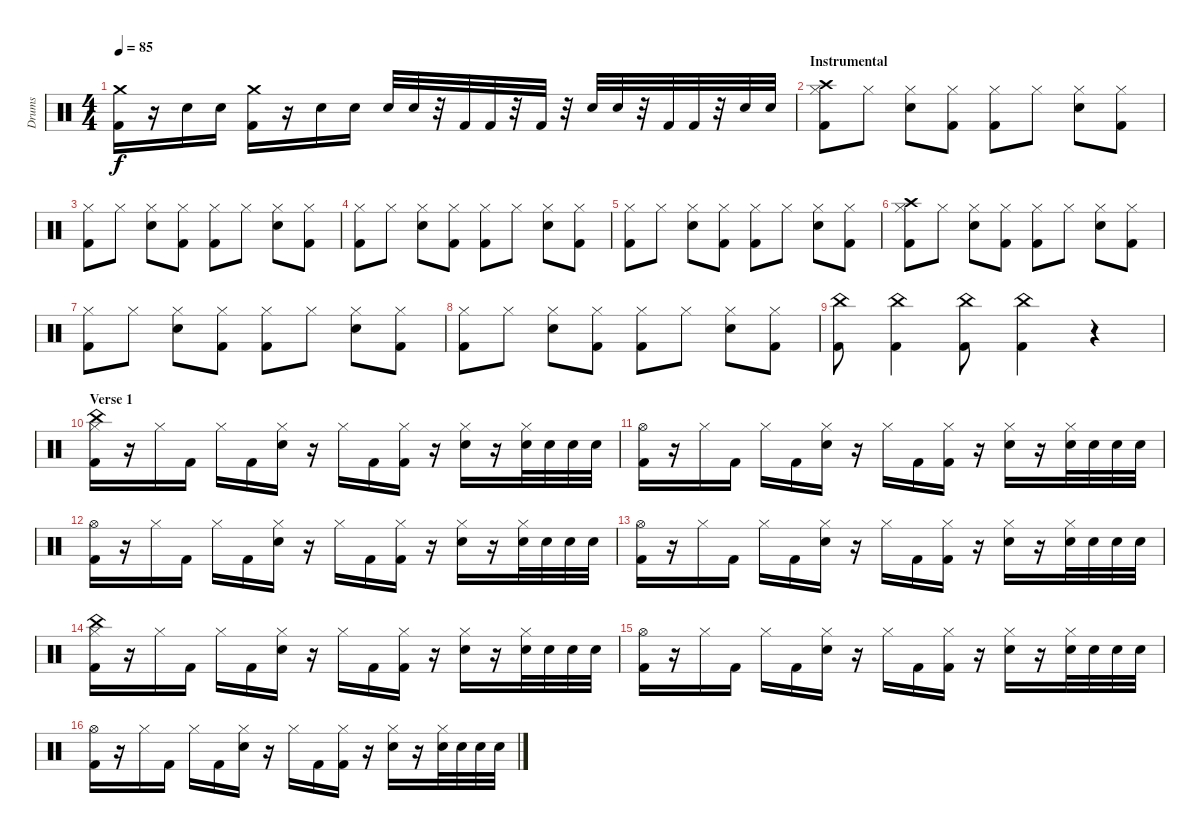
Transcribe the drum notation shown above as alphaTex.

\track ("Drums" "Drums") {instrument percussion}
\staff {score}
\articulation defaults
\ts (4 4)
\tempo 85
\clef neutral
\ks c
("Kick (hit) 2" "Crash medium (hit)").16{dy f} r.16 "Snare (hit) 2".16 "Snare (hit) 2".16 ("Kick (hit) 2" "Crash medium (hit)").16 r.16 "Snare (hit) 2".16 "Snare (hit) 2".16 "Snare (hit) 2".32 "Snare (hit) 2".32 r.32 "Kick (hit) 2".32 "Kick (hit) 2".32 r.32 "Kick (hit) 2".32 r.32 "Snare (hit) 2".32 "Snare (hit) 2".32 r.32 "Kick (hit) 2".32 "Kick (hit) 2".32 r.32 "Snare (hit) 2".32 "Snare (hit) 2".32 |
\section ("" "Instrumental")
("Hi-Hat (closed)" "Kick (hit) 2" "Crash high (hit)").8 "Hi-Hat (closed)".8 ("Hi-Hat (closed)" "Snare (hit) 2").8 ("Hi-Hat (closed)" "Kick (hit) 2").8 ("Hi-Hat (closed)" "Kick (hit) 2").8 "Hi-Hat (closed)".8 ("Hi-Hat (closed)" "Snare (hit) 2").8 ("Hi-Hat (closed)" "Kick (hit) 2").8 |
("Hi-Hat (closed)" "Kick (hit) 2").8 "Hi-Hat (closed)".8 ("Hi-Hat (closed)" "Snare (hit) 2").8 ("Hi-Hat (closed)" "Kick (hit) 2").8 ("Hi-Hat (closed)" "Kick (hit) 2").8 "Hi-Hat (closed)".8 ("Hi-Hat (closed)" "Snare (hit) 2").8 ("Hi-Hat (closed)" "Kick (hit) 2").8 |
("Hi-Hat (closed)" "Kick (hit) 2").8 "Hi-Hat (closed)".8 ("Hi-Hat (closed)" "Snare (hit) 2").8 ("Hi-Hat (closed)" "Kick (hit) 2").8 ("Hi-Hat (closed)" "Kick (hit) 2").8 "Hi-Hat (closed)".8 ("Hi-Hat (closed)" "Snare (hit) 2").8 ("Hi-Hat (closed)" "Kick (hit) 2").8 |
("Hi-Hat (closed)" "Kick (hit) 2").8 "Hi-Hat (closed)".8 ("Hi-Hat (closed)" "Snare (hit) 2").8 ("Hi-Hat (closed)" "Kick (hit) 2").8 ("Hi-Hat (closed)" "Kick (hit) 2").8 "Hi-Hat (closed)".8 ("Hi-Hat (closed)" "Snare (hit) 2").8 ("Hi-Hat (closed)" "Kick (hit) 2").8 |
("Hi-Hat (closed)" "Kick (hit) 2" "Crash high (hit)").8 "Hi-Hat (closed)".8 ("Hi-Hat (closed)" "Snare (hit) 2").8 ("Hi-Hat (closed)" "Kick (hit) 2").8 ("Hi-Hat (closed)" "Kick (hit) 2").8 "Hi-Hat (closed)".8 ("Hi-Hat (closed)" "Snare (hit) 2").8 ("Hi-Hat (closed)" "Kick (hit) 2").8 |
("Hi-Hat (closed)" "Kick (hit) 2").8 "Hi-Hat (closed)".8 ("Hi-Hat (closed)" "Snare (hit) 2").8 ("Hi-Hat (closed)" "Kick (hit) 2").8 ("Hi-Hat (closed)" "Kick (hit) 2").8 "Hi-Hat (closed)".8 ("Hi-Hat (closed)" "Snare (hit) 2").8 ("Hi-Hat (closed)" "Kick (hit) 2").8 |
("Hi-Hat (closed)" "Kick (hit) 2").8 "Hi-Hat (closed)".8 ("Hi-Hat (closed)" "Snare (hit) 2").8 ("Hi-Hat (closed)" "Kick (hit) 2").8 ("Hi-Hat (closed)" "Kick (hit) 2").8 "Hi-Hat (closed)".8 ("Hi-Hat (closed)" "Snare (hit) 2").8 ("Hi-Hat (closed)" "Kick (hit) 2").8 |
("Kick (hit) 2" "China (hit)").8 ("Kick (hit) 2" "China (hit)").4 ("Kick (hit) 2" "China (hit)").8 ("Kick (hit) 2" "China (hit)").4 r.4 |
\section ("" "Verse 1")
("Hi-Hat (closed)" "Kick (hit) 2" "China (hit)").16 r.16 "Hi-Hat (closed)".16 "Kick (hit) 2".16 "Hi-Hat (closed)".16 "Kick (hit) 2".16 ("Hi-Hat (closed)" "Snare (hit) 2").16 r.16 "Hi-Hat (closed)".16 "Kick (hit) 2".16 ("Hi-Hat (closed)" "Kick (hit) 2").16 r.16 ("Hi-Hat (closed)" "Snare (hit) 2").16 r.16 ("Hi-Hat (closed)" "Snare (hit) 2").32 "Snare (hit) 2".32 "Snare (hit) 2".32 "Snare (hit) 2".32 |
("Hi-Hat (open)" "Kick (hit) 2").16 r.16 "Hi-Hat (closed)".16 "Kick (hit) 2".16 "Hi-Hat (closed)".16 "Kick (hit) 2".16 ("Hi-Hat (closed)" "Snare (hit) 2").16 r.16 "Hi-Hat (closed)".16 "Kick (hit) 2".16 ("Hi-Hat (closed)" "Kick (hit) 2").16 r.16 ("Hi-Hat (closed)" "Snare (hit) 2").16 r.16 ("Hi-Hat (closed)" "Snare (hit) 2").32 "Snare (hit) 2".32 "Snare (hit) 2".32 "Snare (hit) 2".32 |
("Hi-Hat (open)" "Kick (hit) 2").16 r.16 "Hi-Hat (closed)".16 "Kick (hit) 2".16 "Hi-Hat (closed)".16 "Kick (hit) 2".16 ("Hi-Hat (closed)" "Snare (hit) 2").16 r.16 "Hi-Hat (closed)".16 "Kick (hit) 2".16 ("Hi-Hat (closed)" "Kick (hit) 2").16 r.16 ("Hi-Hat (closed)" "Snare (hit) 2").16 r.16 ("Hi-Hat (closed)" "Snare (hit) 2").32 "Snare (hit) 2".32 "Snare (hit) 2".32 "Snare (hit) 2".32 |
("Hi-Hat (open)" "Kick (hit) 2").16 r.16 "Hi-Hat (closed)".16 "Kick (hit) 2".16 "Hi-Hat (closed)".16 "Kick (hit) 2".16 ("Hi-Hat (closed)" "Snare (hit) 2").16 r.16 "Hi-Hat (closed)".16 "Kick (hit) 2".16 ("Hi-Hat (closed)" "Kick (hit) 2").16 r.16 ("Hi-Hat (closed)" "Snare (hit) 2").16 r.16 ("Hi-Hat (closed)" "Snare (hit) 2").32 "Snare (hit) 2".32 "Snare (hit) 2".32 "Snare (hit) 2".32 |
("Hi-Hat (closed)" "Kick (hit) 2" "China (hit)").16 r.16 "Hi-Hat (closed)".16 "Kick (hit) 2".16 "Hi-Hat (closed)".16 "Kick (hit) 2".16 ("Hi-Hat (closed)" "Snare (hit) 2").16 r.16 "Hi-Hat (closed)".16 "Kick (hit) 2".16 ("Hi-Hat (closed)" "Kick (hit) 2").16 r.16 ("Hi-Hat (closed)" "Snare (hit) 2").16 r.16 ("Hi-Hat (closed)" "Snare (hit) 2").32 "Snare (hit) 2".32 "Snare (hit) 2".32 "Snare (hit) 2".32 |
("Hi-Hat (open)" "Kick (hit) 2").16 r.16 "Hi-Hat (closed)".16 "Kick (hit) 2".16 "Hi-Hat (closed)".16 "Kick (hit) 2".16 ("Hi-Hat (closed)" "Snare (hit) 2").16 r.16 "Hi-Hat (closed)".16 "Kick (hit) 2".16 ("Hi-Hat (closed)" "Kick (hit) 2").16 r.16 ("Hi-Hat (closed)" "Snare (hit) 2").16 r.16 ("Hi-Hat (closed)" "Snare (hit) 2").32 "Snare (hit) 2".32 "Snare (hit) 2".32 "Snare (hit) 2".32 |
("Hi-Hat (open)" "Kick (hit) 2").16 r.16 "Hi-Hat (closed)".16 "Kick (hit) 2".16 "Hi-Hat (closed)".16 "Kick (hit) 2".16 ("Hi-Hat (closed)" "Snare (hit) 2").16 r.16 "Hi-Hat (closed)".16 "Kick (hit) 2".16 ("Hi-Hat (closed)" "Kick (hit) 2").16 r.16 ("Hi-Hat (closed)" "Snare (hit) 2").16 r.16 ("Hi-Hat (closed)" "Snare (hit) 2").32 "Snare (hit) 2".32 "Snare (hit) 2".32 "Snare (hit) 2".32
